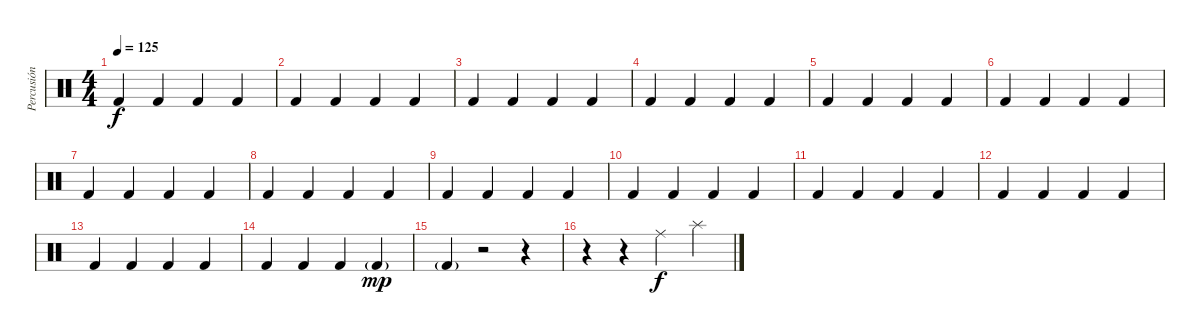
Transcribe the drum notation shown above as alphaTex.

\track ("Percusión" "Percusión") {instrument percussion}
\staff {score}
\articulation defaults
\ts (4 4)
\tempo 125
\clef neutral
\ks c "Kick (hit) 2".4{dy f} "Kick (hit) 2".4 "Kick (hit) 2".4 "Kick (hit) 2".4
|
"Kick (hit) 2".4 "Kick (hit) 2".4 "Kick (hit) 2".4 "Kick (hit) 2".4 |
"Kick (hit) 2".4 "Kick (hit) 2".4 "Kick (hit) 2".4 "Kick (hit) 2".4 |
"Kick (hit) 2".4 "Kick (hit) 2".4 "Kick (hit) 2".4 "Kick (hit) 2".4 |
"Kick (hit) 2".4 "Kick (hit) 2".4 "Kick (hit) 2".4 "Kick (hit) 2".4 |
"Kick (hit) 2".4 "Kick (hit) 2".4 "Kick (hit) 2".4 "Kick (hit) 2".4 |
"Kick (hit) 2".4 "Kick (hit) 2".4 "Kick (hit) 2".4 "Kick (hit) 2".4 |
"Kick (hit) 2".4 "Kick (hit) 2".4 "Kick (hit) 2".4 "Kick (hit) 2".4 |
"Kick (hit) 2".4 "Kick (hit) 2".4 "Kick (hit) 2".4 "Kick (hit) 2".4 |
"Kick (hit) 2".4 "Kick (hit) 2".4 "Kick (hit) 2".4 "Kick (hit) 2".4 |
"Kick (hit) 2".4 "Kick (hit) 2".4 "Kick (hit) 2".4 "Kick (hit) 2".4 |
"Kick (hit) 2".4 "Kick (hit) 2".4 "Kick (hit) 2".4 "Kick (hit) 2".4 |
"Kick (hit) 2".4 "Kick (hit) 2".4 "Kick (hit) 2".4 "Kick (hit) 2".4 |
"Kick (hit) 2".4 "Kick (hit) 2".4 "Kick (hit) 2".4 "Kick (hit) 2"{g}.4{dy mp} |
"Kick (hit) 2"{g}.4 r.2 r.4 |
r.4 r.4 "Ride (middle)".4{dy f} "Splash (hit)".4
